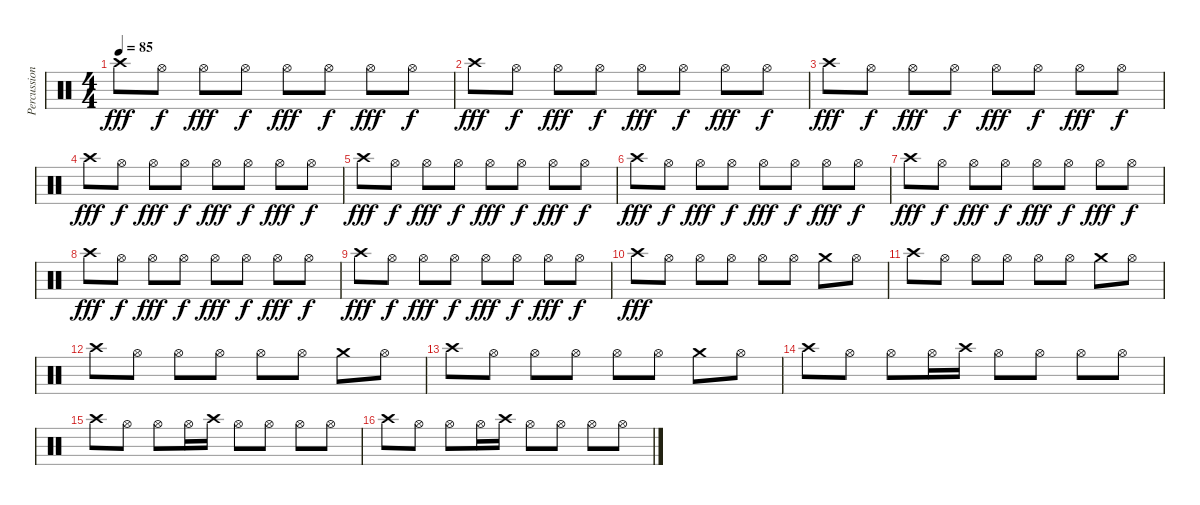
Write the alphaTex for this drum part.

\track ("Percussion" "Percussion") {instrument percussion}
\staff {score}
\articulation defaults
\ts (4 4)
\tempo 85
\clef neutral
\ks c "Crash high (hit)".8{dy fff} "Hi-Hat (open)".8{dy f} "Hi-Hat (open)".8{dy fff} "Hi-Hat (open)".8{dy f} "Hi-Hat (open)".8{dy fff} "Hi-Hat (open)".8{dy f} "Hi-Hat (open)".8{dy fff} "Hi-Hat (open)".8{dy f}
|
"Crash high (hit)".8{dy fff} "Hi-Hat (open)".8{dy f} "Hi-Hat (open)".8{dy fff} "Hi-Hat (open)".8{dy f} "Hi-Hat (open)".8{dy fff} "Hi-Hat (open)".8{dy f} "Hi-Hat (open)".8{dy fff} "Hi-Hat (open)".8{dy f} |
"Crash high (hit)".8{dy fff} "Hi-Hat (open)".8{dy f} "Hi-Hat (open)".8{dy fff} "Hi-Hat (open)".8{dy f} "Hi-Hat (open)".8{dy fff} "Hi-Hat (open)".8{dy f} "Hi-Hat (open)".8{dy fff} "Hi-Hat (open)".8{dy f} |
"Crash high (hit)".8{dy fff} "Hi-Hat (open)".8{dy f} "Hi-Hat (open)".8{dy fff} "Hi-Hat (open)".8{dy f} "Hi-Hat (open)".8{dy fff} "Hi-Hat (open)".8{dy f} "Hi-Hat (open)".8{dy fff} "Hi-Hat (open)".8{dy f} |
"Crash high (hit)".8{dy fff} "Hi-Hat (open)".8{dy f} "Hi-Hat (open)".8{dy fff} "Hi-Hat (open)".8{dy f} "Hi-Hat (open)".8{dy fff} "Hi-Hat (open)".8{dy f} "Hi-Hat (open)".8{dy fff} "Hi-Hat (open)".8{dy f} |
"Crash high (hit)".8{dy fff} "Hi-Hat (open)".8{dy f} "Hi-Hat (open)".8{dy fff} "Hi-Hat (open)".8{dy f} "Hi-Hat (open)".8{dy fff} "Hi-Hat (open)".8{dy f} "Hi-Hat (open)".8{dy fff} "Hi-Hat (open)".8{dy f} |
"Crash high (hit)".8{dy fff} "Hi-Hat (open)".8{dy f} "Hi-Hat (open)".8{dy fff} "Hi-Hat (open)".8{dy f} "Hi-Hat (open)".8{dy fff} "Hi-Hat (open)".8{dy f} "Hi-Hat (open)".8{dy fff} "Hi-Hat (open)".8{dy f} |
"Crash high (hit)".8{dy fff} "Hi-Hat (open)".8{dy f} "Hi-Hat (open)".8{dy fff} "Hi-Hat (open)".8{dy f} "Hi-Hat (open)".8{dy fff} "Hi-Hat (open)".8{dy f} "Hi-Hat (open)".8{dy fff} "Hi-Hat (open)".8{dy f} |
"Crash high (hit)".8{dy fff} "Hi-Hat (open)".8{dy f} "Hi-Hat (open)".8{dy fff} "Hi-Hat (open)".8{dy f} "Hi-Hat (open)".8{dy fff} "Hi-Hat (open)".8{dy f} "Hi-Hat (open)".8{dy fff} "Hi-Hat (open)".8{dy f} |
"Crash high (hit)".8{dy fff} "Hi-Hat (open)".8 "Hi-Hat (open)".8 "Hi-Hat (open)".8 "Hi-Hat (open)".8 "Hi-Hat (open)".8 "Crash medium (hit)".8 "Hi-Hat (open)".8 |
"Crash high (hit)".8 "Hi-Hat (open)".8 "Hi-Hat (open)".8 "Hi-Hat (open)".8 "Hi-Hat (open)".8 "Hi-Hat (open)".8 "Crash medium (hit)".8 "Hi-Hat (open)".8 |
"Crash high (hit)".8 "Hi-Hat (open)".8 "Hi-Hat (open)".8 "Hi-Hat (open)".8 "Hi-Hat (open)".8 "Hi-Hat (open)".8 "Crash medium (hit)".8 "Hi-Hat (open)".8 |
"Crash high (hit)".8 "Hi-Hat (open)".8 "Hi-Hat (open)".8 "Hi-Hat (open)".8 "Hi-Hat (open)".8 "Hi-Hat (open)".8 "Crash medium (hit)".8 "Hi-Hat (open)".8 |
"Crash high (hit)".8 "Hi-Hat (open)".8 "Hi-Hat (open)".8 "Hi-Hat (open)".16 "Crash high (hit)".16 "Hi-Hat (open)".8 "Hi-Hat (open)".8 "Hi-Hat (open)".8 "Hi-Hat (open)".8 |
"Crash high (hit)".8 "Hi-Hat (open)".8 "Hi-Hat (open)".8 "Hi-Hat (open)".16 "Crash high (hit)".16 "Hi-Hat (open)".8 "Hi-Hat (open)".8 "Hi-Hat (open)".8 "Hi-Hat (open)".8 |
"Crash high (hit)".8 "Hi-Hat (open)".8 "Hi-Hat (open)".8 "Hi-Hat (open)".16 "Crash high (hit)".16 "Hi-Hat (open)".8 "Hi-Hat (open)".8 "Hi-Hat (open)".8 "Hi-Hat (open)".8
